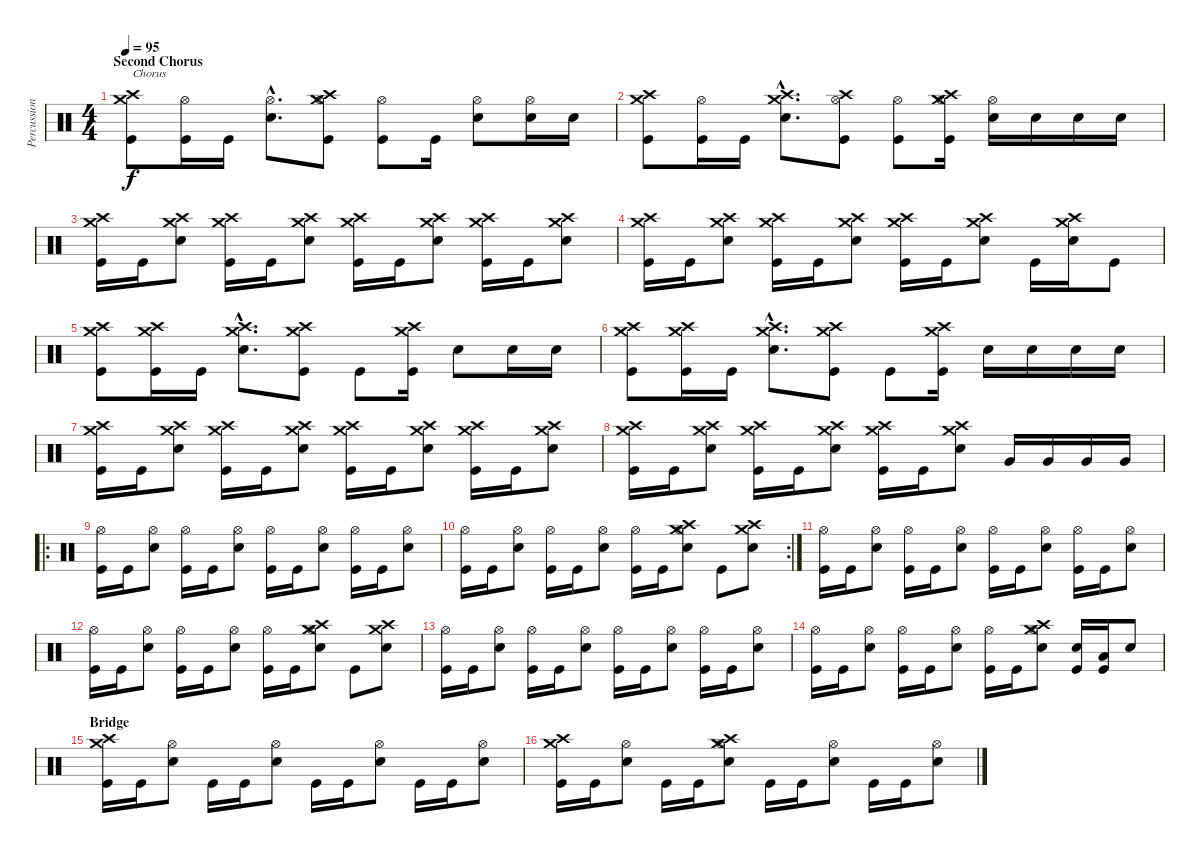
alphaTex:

\track ("Percussion" "Percussion") {instrument percussion}
\staff {score}
\articulation defaults
\ts (4 4)
\section ("" "Second Chorus")
\tempo 95
\clef neutral
\ks c
("Crash medium (hit)" "Crash high (hit)" "Kick (hit)").8{txt "Chorus" dy f} ("Hi-Hat (open)" "Kick (hit)").16 "Kick (hit)".16 ("Electric Snare (hit)"{hac} "Hi-Hat (open)"{hac}).8{d} ("Crash high (hit)" "Crash medium (hit)" "Hi-Hat (open)" "Kick (hit)").8 ("Hi-Hat (open)" "Kick (hit)").8 "Kick (hit)".16 ("Hi-Hat (open)" "Electric Snare (hit)").8 ("Hi-Hat (open)" "Electric Snare (hit)").16 "Electric Snare (hit)".16 |
("Crash medium (hit)" "Crash high (hit)" "Kick (hit)").8 ("Hi-Hat (open)" "Kick (hit)").16 "Kick (hit)".16 ("Electric Snare (hit)"{hac} "Crash medium (hit)"{hac} "Crash high (hit)"{hac}).8{d} ("Crash high (hit)" "Hi-Hat (open)" "Kick (hit)").8 ("Hi-Hat (open)" "Kick (hit)").8 ("Crash medium (hit)" "Crash high (hit)" "Hi-Hat (open)" "Kick (hit)").16 ("Hi-Hat (open)" "Electric Snare (hit)").16 "Electric Snare (hit)".16 "Electric Snare (hit)".16 "Electric Snare (hit)".16 |
("Crash medium (hit)" "Crash high (hit)" "Kick (hit)").16 "Kick (hit)".16 ("Crash high (hit)" "Electric Snare (hit)" "Crash medium (hit)").8 ("Crash high (hit)" "Crash medium (hit)" "Kick (hit)").16 "Kick (hit)".16 ("Crash high (hit)" "Electric Snare (hit)" "Crash medium (hit)").8 ("Crash high (hit)" "Crash medium (hit)" "Kick (hit)").16 "Kick (hit)".16 ("Crash high (hit)" "Electric Snare (hit)" "Crash medium (hit)").8 ("Crash high (hit)" "Crash medium (hit)" "Kick (hit)").16 "Kick (hit)".16 ("Electric Snare (hit)" "Crash medium (hit)" "Crash high (hit)").8 |
("Crash medium (hit)" "Crash high (hit)" "Kick (hit)").16 "Kick (hit)".16 ("Crash medium (hit)" "Electric Snare (hit)" "Crash high (hit)").8 ("Crash medium (hit)" "Crash high (hit)" "Kick (hit)").16 "Kick (hit)".16 ("Crash medium (hit)" "Electric Snare (hit)" "Crash high (hit)").8 ("Crash medium (hit)" "Crash high (hit)" "Kick (hit)").16 "Kick (hit)".16 ("Electric Snare (hit)" "Crash high (hit)" "Crash medium (hit)").8 "Kick (hit)".16 ("Electric Snare (hit)" "Crash high (hit)" "Crash medium (hit)").16 "Kick (hit)".8 |
("Crash medium (hit)" "Crash high (hit)" "Kick (hit)").8 ("Crash medium (hit)" "Crash high (hit)" "Kick (hit)").16 "Kick (hit)".16 ("Crash medium (hit)"{hac} "Electric Snare (hit)"{hac} "Crash high (hit)"{hac}).8{d} ("Crash high (hit)" "Crash medium (hit)" "Kick (hit)").8 "Kick (hit)".8 ("Crash medium (hit)" "Crash high (hit)" "Kick (hit)").16 "Electric Snare (hit)".8 "Electric Snare (hit)".16 "Electric Snare (hit)".16 |
("Crash medium (hit)" "Crash high (hit)" "Kick (hit)").8 ("Crash medium (hit)" "Crash high (hit)" "Kick (hit)").16 "Kick (hit)".16 ("Electric Snare (hit)"{hac} "Crash medium (hit)"{hac} "Crash high (hit)"{hac}).8{d} ("Crash high (hit)" "Crash medium (hit)" "Kick (hit)").8 "Kick (hit)".8 ("Crash medium (hit)" "Crash high (hit)" "Kick (hit)").16 "Electric Snare (hit)".16 "Electric Snare (hit)".16 "Electric Snare (hit)".16 "Electric Snare (hit)".16 |
("Crash medium (hit)" "Crash high (hit)" "Kick (hit)").16 "Kick (hit)".16 ("Crash high (hit)" "Electric Snare (hit)" "Crash medium (hit)").8 ("Crash high (hit)" "Crash medium (hit)" "Kick (hit)").16 "Kick (hit)".16 ("Crash high (hit)" "Electric Snare (hit)" "Crash medium (hit)").8 ("Crash high (hit)" "Crash medium (hit)" "Kick (hit)").16 "Kick (hit)".16 ("Crash high (hit)" "Electric Snare (hit)" "Crash medium (hit)").8 ("Crash high (hit)" "Crash medium (hit)" "Kick (hit)").16 "Kick (hit)".16 ("Electric Snare (hit)" "Crash medium (hit)" "Crash high (hit)").8 |
("Crash medium (hit)" "Crash high (hit)" "Kick (hit)").16 "Kick (hit)".16 ("Crash medium (hit)" "Electric Snare (hit)" "Crash high (hit)").8 ("Crash medium (hit)" "Crash high (hit)" "Kick (hit)").16 "Kick (hit)".16 ("Crash high (hit)" "Electric Snare (hit)" "Crash medium (hit)").8 ("Crash high (hit)" "Crash medium (hit)" "Kick (hit)").16 "Kick (hit)".16 ("Crash high (hit)" "Electric Snare (hit)" "Crash medium (hit)").8 "Very Low Tom (hit)".16 "Very Low Tom (hit)".16 "Very Low Tom (hit)".16 "Very Low Tom (hit)".16 |
\ro
("Hi-Hat (open)" "Kick (hit)").16 "Kick (hit)".16 ("Hi-Hat (open)" "Electric Snare (hit)").8 ("Hi-Hat (open)" "Kick (hit)").16 "Kick (hit)".16 ("Hi-Hat (open)" "Electric Snare (hit)").8 ("Hi-Hat (open)" "Kick (hit)").16 "Kick (hit)".16 ("Hi-Hat (open)" "Electric Snare (hit)").8 ("Hi-Hat (open)" "Kick (hit)").16 "Kick (hit)".16 ("Hi-Hat (open)" "Electric Snare (hit)").8 |
\rc 2
("Hi-Hat (open)" "Kick (hit)").16 "Kick (hit)".16 ("Hi-Hat (open)" "Electric Snare (hit)").8 ("Hi-Hat (open)" "Kick (hit)").16 "Kick (hit)".16 ("Hi-Hat (open)" "Electric Snare (hit)").8 ("Hi-Hat (open)" "Kick (hit)").16 "Kick (hit)".16 ("Hi-Hat (open)" "Electric Snare (hit)" "Crash medium (hit)" "Crash high (hit)").8 "Kick (hit)".8 ("Electric Snare (hit)" "Crash medium (hit)" "Crash high (hit)").8 |
("Hi-Hat (open)" "Kick (hit)").16 "Kick (hit)".16 ("Hi-Hat (open)" "Electric Snare (hit)").8 ("Hi-Hat (open)" "Kick (hit)").16 "Kick (hit)".16 ("Hi-Hat (open)" "Electric Snare (hit)").8 ("Hi-Hat (open)" "Kick (hit)").16 "Kick (hit)".16 ("Hi-Hat (open)" "Electric Snare (hit)").8 ("Hi-Hat (open)" "Kick (hit)").16 "Kick (hit)".16 ("Hi-Hat (open)" "Electric Snare (hit)").8 |
("Hi-Hat (open)" "Kick (hit)").16 "Kick (hit)".16 ("Hi-Hat (open)" "Electric Snare (hit)").8 ("Hi-Hat (open)" "Kick (hit)").16 "Kick (hit)".16 ("Hi-Hat (open)" "Electric Snare (hit)").8 ("Hi-Hat (open)" "Kick (hit)").16 "Kick (hit)".16 ("Hi-Hat (open)" "Electric Snare (hit)" "Crash medium (hit)" "Crash high (hit)").8 "Kick (hit)".8 ("Electric Snare (hit)" "Crash medium (hit)" "Crash high (hit)").8 |
("Hi-Hat (open)" "Kick (hit)").16 "Kick (hit)".16 ("Hi-Hat (open)" "Electric Snare (hit)").8 ("Hi-Hat (open)" "Kick (hit)").16 "Kick (hit)".16 ("Hi-Hat (open)" "Electric Snare (hit)").8 ("Hi-Hat (open)" "Kick (hit)").16 "Kick (hit)".16 ("Hi-Hat (open)" "Electric Snare (hit)").8 ("Hi-Hat (open)" "Kick (hit)").16 "Kick (hit)".16 ("Hi-Hat (open)" "Electric Snare (hit)").8 |
("Hi-Hat (open)" "Kick (hit)").16 "Kick (hit)".16 ("Hi-Hat (open)" "Electric Snare (hit)").8 ("Hi-Hat (open)" "Kick (hit)").16 "Kick (hit)".16 ("Hi-Hat (open)" "Electric Snare (hit)").8 ("Hi-Hat (open)" "Kick (hit)").16 "Kick (hit)".16 ("Hi-Hat (open)" "Electric Snare (hit)" "Crash medium (hit)" "Crash high (hit)").8 ("Electric Snare (hit)" "Kick (hit)").16 ("Low Tom (hit)" "Kick (hit)").16 "Electric Snare (hit)".8 |
\section ("" "Bridge")
("Crash medium (hit)" "Crash high (hit)" "Kick (hit)").16 "Kick (hit)".16 ("Hi-Hat (open)" "Electric Snare (hit)").8 "Kick (hit)".16 "Kick (hit)".16 ("Hi-Hat (open)" "Electric Snare (hit)").8 "Kick (hit)".16 "Kick (hit)".16 ("Hi-Hat (open)" "Electric Snare (hit)").8 "Kick (hit)".16 "Kick (hit)".16 ("Electric Snare (hit)" "Hi-Hat (open)").8 |
("Crash medium (hit)" "Crash high (hit)" "Kick (hit)").16 "Kick (hit)".16 ("Hi-Hat (open)" "Electric Snare (hit)").8 "Kick (hit)".16 "Kick (hit)".16 ("Hi-Hat (open)" "Electric Snare (hit)" "Crash medium (hit)" "Crash high (hit)").8 "Kick (hit)".16 "Kick (hit)".16 ("Hi-Hat (open)" "Electric Snare (hit)").8 "Kick (hit)".16 "Kick (hit)".16 ("Electric Snare (hit)" "Hi-Hat (open)").8
